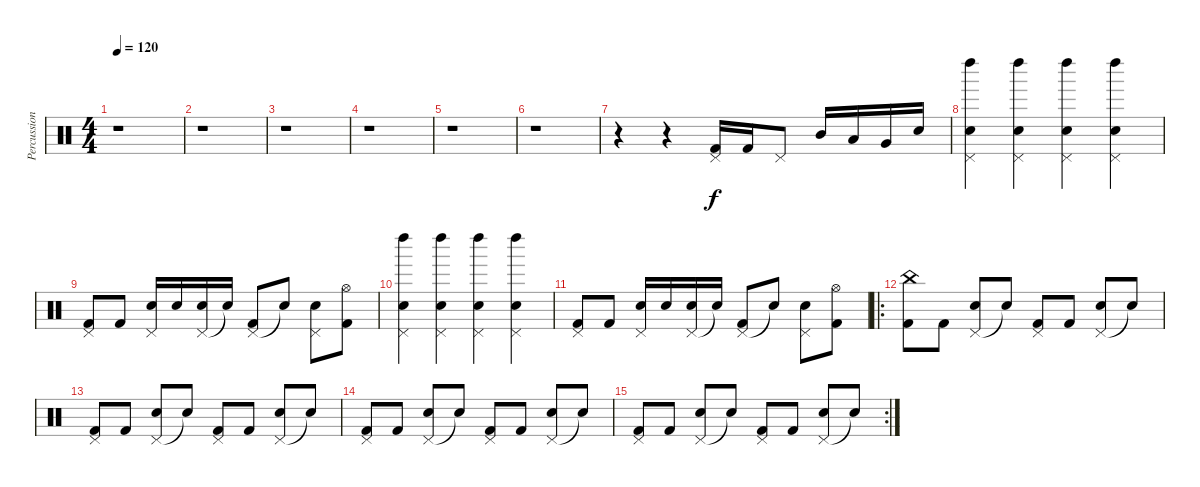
\track ("Percussions" "Percussion") {instrument percussion}
\staff {score}
\articulation defaults
\ts (4 4)
\tempo 120
\clef neutral
\ks c
r.1{dy f} |
r.1 |
r.1 |
r.1 |
r.1 |
r.1 |
r.4 r.4 ("Pedal Hi-Hat (hit)" "Kick (hit) 2").16 "Kick (hit) 2".16 "Pedal Hi-Hat (hit)".8 "Mid Tom (hit)".16 "Low Tom (hit)".16 "Very Low Tom (hit)".16 "Snare (hit) 2".16 |
("Pedal Hi-Hat (hit)" "Snare (hit) 2" "Left Maraca (hit)").4 ("Pedal Hi-Hat (hit)" "Snare (hit) 2" "Left Maraca (hit)").4 ("Pedal Hi-Hat (hit)" "Snare (hit) 2" "Left Maraca (hit)").4 ("Pedal Hi-Hat (hit)" "Snare (hit) 2" "Left Maraca (hit)").4 |
("Pedal Hi-Hat (hit)" "Kick (hit) 2").8 "Kick (hit) 2".8 ("Pedal Hi-Hat (hit)" "Snare (hit) 2").16 "Snare (hit) 2".16 ("Pedal Hi-Hat (hit)" "Snare (hit) 2").16 "Snare (hit)"{t}.16 ("Pedal Hi-Hat (hit)" "Kick (hit) 2").8 "Snare (hit)"{t}.8 ("Pedal Hi-Hat (hit)" "Snare (hit) 2").8 ("Hi-Hat (open)" "Kick (hit) 2").8 |
("Pedal Hi-Hat (hit)" "Snare (hit) 2" "Left Maraca (hit)").4 ("Pedal Hi-Hat (hit)" "Snare (hit) 2" "Left Maraca (hit)").4 ("Pedal Hi-Hat (hit)" "Snare (hit) 2" "Left Maraca (hit)").4 ("Pedal Hi-Hat (hit)" "Snare (hit) 2" "Left Maraca (hit)").4 |
("Pedal Hi-Hat (hit)" "Kick (hit) 2").8 "Kick (hit) 2".8 ("Pedal Hi-Hat (hit)" "Snare (hit) 2").16 "Snare (hit) 2".16 ("Pedal Hi-Hat (hit)" "Snare (hit) 2").16 "Snare (hit)"{t}.16 ("Pedal Hi-Hat (hit)" "Kick (hit) 2").8 "Snare (hit)"{t}.8 ("Pedal Hi-Hat (hit)" "Snare (hit) 2").8 ("Hi-Hat (open)" "Kick (hit) 2").8 |
\ro
("China (hit)" "Kick (hit) 2").8 "Kick (hit) 2".8 ("Pedal Hi-Hat (hit)" "Snare (hit) 2").8 "Snare (hit)"{t}.8 ("Pedal Hi-Hat (hit)" "Kick (hit) 2").8 "Kick (hit) 2".8 ("Pedal Hi-Hat (hit)" "Snare (hit) 2").8 "Snare (hit)"{t}.8 |
("Pedal Hi-Hat (hit)" "Kick (hit) 2").8 "Kick (hit) 2".8 ("Pedal Hi-Hat (hit)" "Snare (hit) 2").8 "Snare (hit)"{t}.8 ("Pedal Hi-Hat (hit)" "Kick (hit) 2").8 "Kick (hit) 2".8 ("Pedal Hi-Hat (hit)" "Snare (hit) 2").8 "Snare (hit)"{t}.8 |
("Pedal Hi-Hat (hit)" "Kick (hit) 2").8 "Kick (hit) 2".8 ("Pedal Hi-Hat (hit)" "Snare (hit) 2").8 "Snare (hit)"{t}.8 ("Pedal Hi-Hat (hit)" "Kick (hit) 2").8 "Kick (hit) 2".8 ("Pedal Hi-Hat (hit)" "Snare (hit) 2").8 "Snare (hit)"{t}.8 |
\rc 2
("Pedal Hi-Hat (hit)" "Kick (hit) 2").8 "Kick (hit) 2".8 ("Pedal Hi-Hat (hit)" "Snare (hit) 2").8 "Snare (hit)"{t}.8 ("Pedal Hi-Hat (hit)" "Kick (hit) 2").8 "Kick (hit) 2".8 ("Pedal Hi-Hat (hit)" "Snare (hit) 2").8 "Snare (hit)"{t}.8
